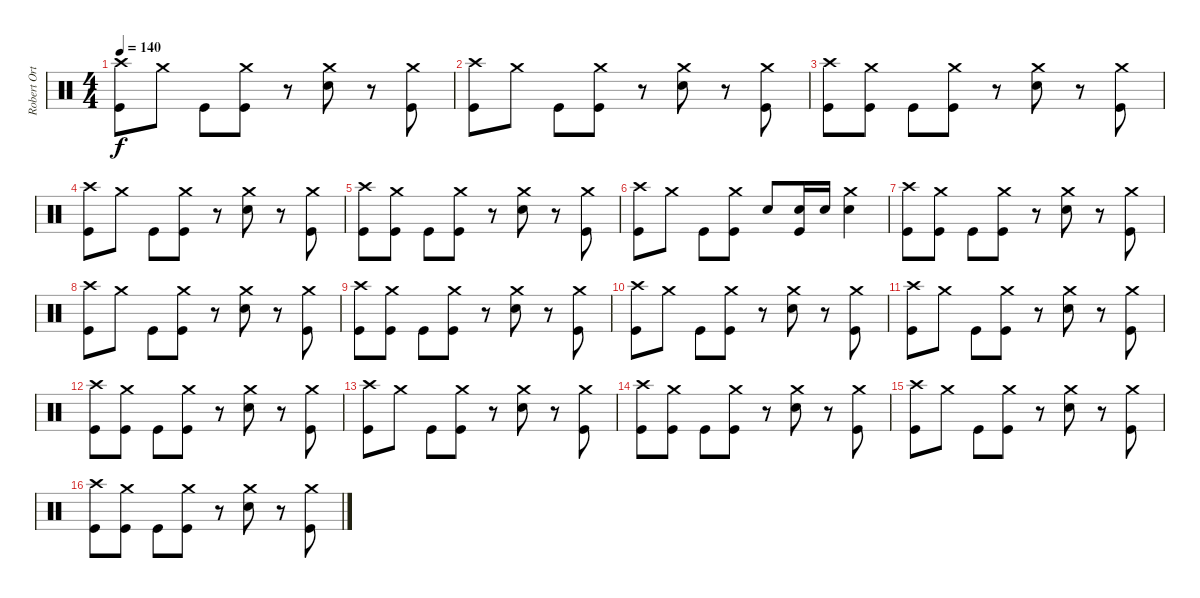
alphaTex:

\track ("Robert Ortiz" "Robert Ort") {instrument percussion}
\staff {score}
\articulation defaults
\ts (4 4)
\tempo 140
\clef neutral
\ks c
("Crash high (hit)" "Kick (hit)").8{dy f} "Crash medium (hit)".8 "Kick (hit)".8 ("Crash medium (hit)" "Kick (hit)").8 r.8 ("Crash medium (hit)" "Snare (hit) 2").8 r.8 ("Crash medium (hit)" "Kick (hit)").8 |
("Crash high (hit)" "Kick (hit)").8 "Crash medium (hit)".8 "Kick (hit)".8 ("Crash medium (hit)" "Kick (hit)").8 r.8 ("Crash medium (hit)" "Snare (hit) 2").8 r.8 ("Crash medium (hit)" "Kick (hit)").8 |
("Crash high (hit)" "Kick (hit)").8 ("Crash medium (hit)" "Kick (hit)").8 "Kick (hit)".8 ("Crash medium (hit)" "Kick (hit)").8 r.8 ("Crash medium (hit)" "Snare (hit) 2").8 r.8 ("Crash medium (hit)" "Kick (hit)").8 |
("Crash high (hit)" "Kick (hit)").8 "Crash medium (hit)".8 "Kick (hit)".8 ("Crash medium (hit)" "Kick (hit)").8 r.8 ("Crash medium (hit)" "Snare (hit) 2").8 r.8 ("Crash medium (hit)" "Kick (hit)").8 |
("Crash high (hit)" "Kick (hit)").8 ("Crash medium (hit)" "Kick (hit)").8 "Kick (hit)".8 ("Crash medium (hit)" "Kick (hit)").8 r.8 ("Crash medium (hit)" "Snare (hit) 2").8 r.8 ("Crash medium (hit)" "Kick (hit)").8 |
("Crash high (hit)" "Kick (hit)").8 "Crash medium (hit)".8 "Kick (hit)".8 ("Crash medium (hit)" "Kick (hit)").8 "Snare (hit) 2".8 ("Snare (hit) 2" "Kick (hit)").16 "Snare (hit) 2".16 ("Crash medium (hit)" "Snare (hit) 2").4 |
("Crash high (hit)" "Kick (hit)").8 ("Crash medium (hit)" "Kick (hit)").8 "Kick (hit)".8 ("Crash medium (hit)" "Kick (hit)").8 r.8 ("Crash medium (hit)" "Snare (hit) 2").8 r.8 ("Crash medium (hit)" "Kick (hit)").8 |
("Crash high (hit)" "Kick (hit)").8 "Crash medium (hit)".8 "Kick (hit)".8 ("Crash medium (hit)" "Kick (hit)").8 r.8 ("Crash medium (hit)" "Snare (hit) 2").8 r.8 ("Crash medium (hit)" "Kick (hit)").8 |
("Crash high (hit)" "Kick (hit)").8 ("Crash medium (hit)" "Kick (hit)").8 "Kick (hit)".8 ("Crash medium (hit)" "Kick (hit)").8 r.8 ("Crash medium (hit)" "Snare (hit) 2").8 r.8 ("Crash medium (hit)" "Kick (hit)").8 |
("Crash high (hit)" "Kick (hit)").8 "Crash medium (hit)".8 "Kick (hit)".8 ("Crash medium (hit)" "Kick (hit)").8 r.8 ("Crash medium (hit)" "Snare (hit) 2").8 r.8 ("Crash medium (hit)" "Kick (hit)").8 |
("Crash high (hit)" "Kick (hit)").8 "Crash medium (hit)".8 "Kick (hit)".8 ("Crash medium (hit)" "Kick (hit)").8 r.8 ("Crash medium (hit)" "Snare (hit) 2").8 r.8 ("Crash medium (hit)" "Kick (hit)").8 |
("Crash high (hit)" "Kick (hit)").8 ("Crash medium (hit)" "Kick (hit)").8 "Kick (hit)".8 ("Crash medium (hit)" "Kick (hit)").8 r.8 ("Crash medium (hit)" "Snare (hit) 2").8 r.8 ("Crash medium (hit)" "Kick (hit)").8 |
("Crash high (hit)" "Kick (hit)").8 "Crash medium (hit)".8 "Kick (hit)".8 ("Crash medium (hit)" "Kick (hit)").8 r.8 ("Crash medium (hit)" "Snare (hit) 2").8 r.8 ("Crash medium (hit)" "Kick (hit)").8 |
("Crash high (hit)" "Kick (hit)").8 ("Crash medium (hit)" "Kick (hit)").8 "Kick (hit)".8 ("Crash medium (hit)" "Kick (hit)").8 r.8 ("Crash medium (hit)" "Snare (hit) 2").8 r.8 ("Crash medium (hit)" "Kick (hit)").8 |
("Crash high (hit)" "Kick (hit)").8 "Crash medium (hit)".8 "Kick (hit)".8 ("Crash medium (hit)" "Kick (hit)").8 r.8 ("Crash medium (hit)" "Snare (hit) 2").8 r.8 ("Crash medium (hit)" "Kick (hit)").8 |
("Crash high (hit)" "Kick (hit)").8 ("Crash medium (hit)" "Kick (hit)").8 "Kick (hit)".8 ("Crash medium (hit)" "Kick (hit)").8 r.8 ("Crash medium (hit)" "Snare (hit) 2").8 r.8 ("Crash medium (hit)" "Kick (hit)").8
